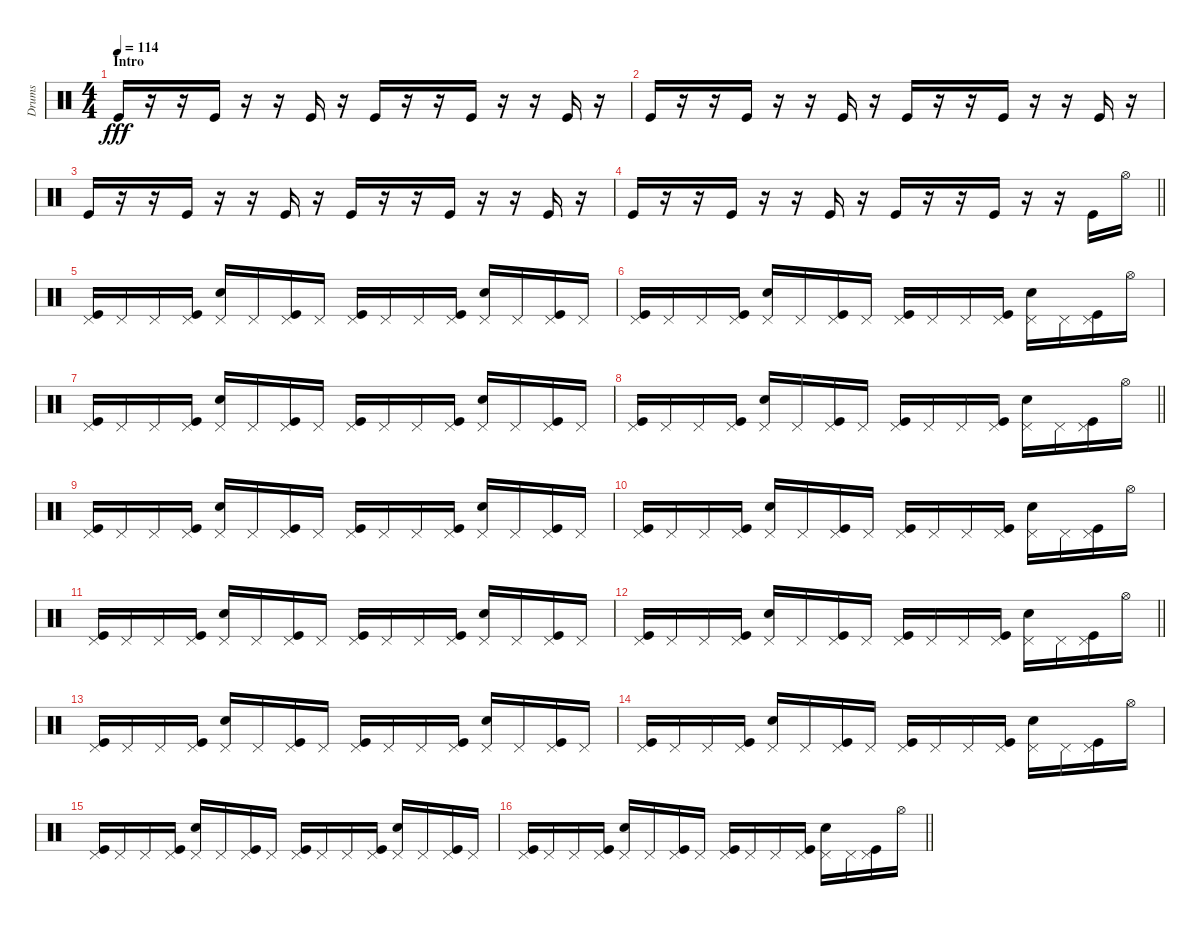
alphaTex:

\track ("Drums" "Drums") {instrument percussion}
\staff {score}
\articulation defaults
\ts (4 4)
\section ("" "Intro")
\tempo 114
\clef neutral
\ks c "Kick (hit)".16{dy fff}
r.16 r.16 "Kick (hit)".16 r.16 r.16 "Kick (hit)".16 r.16 "Kick (hit)".16 r.16 r.16 "Kick (hit)".16 r.16 r.16 "Kick (hit)".16 r.16 |
"Kick (hit)".16 r.16 r.16 "Kick (hit)".16 r.16 r.16 "Kick (hit)".16 r.16 "Kick (hit)".16 r.16 r.16 "Kick (hit)".16 r.16 r.16 "Kick (hit)".16 r.16 |
"Kick (hit)".16 r.16 r.16 "Kick (hit)".16 r.16 r.16 "Kick (hit)".16 r.16 "Kick (hit)".16 r.16 r.16 "Kick (hit)".16 r.16 r.16 "Kick (hit)".16 r.16 |
\barLineRight lightlight "Kick (hit)".16
r.16 r.16 "Kick (hit)".16 r.16 r.16 "Kick (hit)".16 r.16 "Kick (hit)".16 r.16 r.16 "Kick (hit)".16 r.16 r.16 "Kick (hit)".16 "Hi-Hat (open)".16 |
("Pedal Hi-Hat (hit)" "Kick (hit)").16 "Pedal Hi-Hat (hit)".16 "Pedal Hi-Hat (hit)".16 ("Pedal Hi-Hat (hit)" "Kick (hit)").16 ("Pedal Hi-Hat (hit)" "Snare (hit) 2").16 "Pedal Hi-Hat (hit)".16 ("Pedal Hi-Hat (hit)" "Kick (hit)").16 "Pedal Hi-Hat (hit)".16 ("Pedal Hi-Hat (hit)" "Kick (hit)").16 "Pedal Hi-Hat (hit)".16 "Pedal Hi-Hat (hit)".16 ("Pedal Hi-Hat (hit)" "Kick (hit)").16 ("Pedal Hi-Hat (hit)" "Snare (hit) 2").16 "Pedal Hi-Hat (hit)".16 ("Pedal Hi-Hat (hit)" "Kick (hit)").16 "Pedal Hi-Hat (hit)".16 |
("Pedal Hi-Hat (hit)" "Kick (hit)").16 "Pedal Hi-Hat (hit)".16 "Pedal Hi-Hat (hit)".16 ("Pedal Hi-Hat (hit)" "Kick (hit)").16 ("Pedal Hi-Hat (hit)" "Snare (hit) 2").16 "Pedal Hi-Hat (hit)".16 ("Pedal Hi-Hat (hit)" "Kick (hit)").16 "Pedal Hi-Hat (hit)".16 ("Pedal Hi-Hat (hit)" "Kick (hit)").16 "Pedal Hi-Hat (hit)".16 "Pedal Hi-Hat (hit)".16 ("Pedal Hi-Hat (hit)" "Kick (hit)").16 ("Pedal Hi-Hat (hit)" "Snare (hit) 2").16 "Pedal Hi-Hat (hit)".16 ("Pedal Hi-Hat (hit)" "Kick (hit)").16 "Hi-Hat (open)".16 |
("Pedal Hi-Hat (hit)" "Kick (hit)").16 "Pedal Hi-Hat (hit)".16 "Pedal Hi-Hat (hit)".16 ("Pedal Hi-Hat (hit)" "Kick (hit)").16 ("Pedal Hi-Hat (hit)" "Snare (hit) 2").16 "Pedal Hi-Hat (hit)".16 ("Pedal Hi-Hat (hit)" "Kick (hit)").16 "Pedal Hi-Hat (hit)".16 ("Pedal Hi-Hat (hit)" "Kick (hit)").16 "Pedal Hi-Hat (hit)".16 "Pedal Hi-Hat (hit)".16 ("Pedal Hi-Hat (hit)" "Kick (hit)").16 ("Pedal Hi-Hat (hit)" "Snare (hit) 2").16 "Pedal Hi-Hat (hit)".16 ("Pedal Hi-Hat (hit)" "Kick (hit)").16 "Pedal Hi-Hat (hit)".16 |
\barLineRight lightlight
("Pedal Hi-Hat (hit)" "Kick (hit)").16 "Pedal Hi-Hat (hit)".16 "Pedal Hi-Hat (hit)".16 ("Pedal Hi-Hat (hit)" "Kick (hit)").16 ("Pedal Hi-Hat (hit)" "Snare (hit) 2").16 "Pedal Hi-Hat (hit)".16 ("Pedal Hi-Hat (hit)" "Kick (hit)").16 "Pedal Hi-Hat (hit)".16 ("Pedal Hi-Hat (hit)" "Kick (hit)").16 "Pedal Hi-Hat (hit)".16 "Pedal Hi-Hat (hit)".16 ("Pedal Hi-Hat (hit)" "Kick (hit)").16 ("Pedal Hi-Hat (hit)" "Snare (hit) 2").16 "Pedal Hi-Hat (hit)".16 ("Pedal Hi-Hat (hit)" "Kick (hit)").16 "Hi-Hat (open)".16 |
("Pedal Hi-Hat (hit)" "Kick (hit)").16 "Pedal Hi-Hat (hit)".16 "Pedal Hi-Hat (hit)".16 ("Pedal Hi-Hat (hit)" "Kick (hit)").16 ("Pedal Hi-Hat (hit)" "Snare (hit) 2").16 "Pedal Hi-Hat (hit)".16 ("Pedal Hi-Hat (hit)" "Kick (hit)").16 "Pedal Hi-Hat (hit)".16 ("Pedal Hi-Hat (hit)" "Kick (hit)").16 "Pedal Hi-Hat (hit)".16 "Pedal Hi-Hat (hit)".16 ("Pedal Hi-Hat (hit)" "Kick (hit)").16 ("Pedal Hi-Hat (hit)" "Snare (hit) 2").16 "Pedal Hi-Hat (hit)".16 ("Pedal Hi-Hat (hit)" "Kick (hit)").16 "Pedal Hi-Hat (hit)".16 |
("Pedal Hi-Hat (hit)" "Kick (hit)").16 "Pedal Hi-Hat (hit)".16 "Pedal Hi-Hat (hit)".16 ("Pedal Hi-Hat (hit)" "Kick (hit)").16 ("Pedal Hi-Hat (hit)" "Snare (hit) 2").16 "Pedal Hi-Hat (hit)".16 ("Pedal Hi-Hat (hit)" "Kick (hit)").16 "Pedal Hi-Hat (hit)".16 ("Pedal Hi-Hat (hit)" "Kick (hit)").16 "Pedal Hi-Hat (hit)".16 "Pedal Hi-Hat (hit)".16 ("Pedal Hi-Hat (hit)" "Kick (hit)").16 ("Pedal Hi-Hat (hit)" "Snare (hit) 2").16 "Pedal Hi-Hat (hit)".16 ("Pedal Hi-Hat (hit)" "Kick (hit)").16 "Hi-Hat (open)".16 |
("Pedal Hi-Hat (hit)" "Kick (hit)").16 "Pedal Hi-Hat (hit)".16 "Pedal Hi-Hat (hit)".16 ("Pedal Hi-Hat (hit)" "Kick (hit)").16 ("Pedal Hi-Hat (hit)" "Snare (hit) 2").16 "Pedal Hi-Hat (hit)".16 ("Pedal Hi-Hat (hit)" "Kick (hit)").16 "Pedal Hi-Hat (hit)".16 ("Pedal Hi-Hat (hit)" "Kick (hit)").16 "Pedal Hi-Hat (hit)".16 "Pedal Hi-Hat (hit)".16 ("Pedal Hi-Hat (hit)" "Kick (hit)").16 ("Pedal Hi-Hat (hit)" "Snare (hit) 2").16 "Pedal Hi-Hat (hit)".16 ("Pedal Hi-Hat (hit)" "Kick (hit)").16 "Pedal Hi-Hat (hit)".16 |
\barLineRight lightlight
("Pedal Hi-Hat (hit)" "Kick (hit)").16 "Pedal Hi-Hat (hit)".16 "Pedal Hi-Hat (hit)".16 ("Pedal Hi-Hat (hit)" "Kick (hit)").16 ("Pedal Hi-Hat (hit)" "Snare (hit) 2").16 "Pedal Hi-Hat (hit)".16 ("Pedal Hi-Hat (hit)" "Kick (hit)").16 "Pedal Hi-Hat (hit)".16 ("Pedal Hi-Hat (hit)" "Kick (hit)").16 "Pedal Hi-Hat (hit)".16 "Pedal Hi-Hat (hit)".16 ("Pedal Hi-Hat (hit)" "Kick (hit)").16 ("Pedal Hi-Hat (hit)" "Snare (hit) 2").16 "Pedal Hi-Hat (hit)".16 ("Pedal Hi-Hat (hit)" "Kick (hit)").16 "Hi-Hat (open)".16 |
("Pedal Hi-Hat (hit)" "Kick (hit)").16 "Pedal Hi-Hat (hit)".16 "Pedal Hi-Hat (hit)".16 ("Pedal Hi-Hat (hit)" "Kick (hit)").16 ("Pedal Hi-Hat (hit)" "Snare (hit) 2").16 "Pedal Hi-Hat (hit)".16 ("Pedal Hi-Hat (hit)" "Kick (hit)").16 "Pedal Hi-Hat (hit)".16 ("Pedal Hi-Hat (hit)" "Kick (hit)").16 "Pedal Hi-Hat (hit)".16 "Pedal Hi-Hat (hit)".16 ("Pedal Hi-Hat (hit)" "Kick (hit)").16 ("Pedal Hi-Hat (hit)" "Snare (hit) 2").16 "Pedal Hi-Hat (hit)".16 ("Pedal Hi-Hat (hit)" "Kick (hit)").16 "Pedal Hi-Hat (hit)".16 |
("Pedal Hi-Hat (hit)" "Kick (hit)").16 "Pedal Hi-Hat (hit)".16 "Pedal Hi-Hat (hit)".16 ("Pedal Hi-Hat (hit)" "Kick (hit)").16 ("Pedal Hi-Hat (hit)" "Snare (hit) 2").16 "Pedal Hi-Hat (hit)".16 ("Pedal Hi-Hat (hit)" "Kick (hit)").16 "Pedal Hi-Hat (hit)".16 ("Pedal Hi-Hat (hit)" "Kick (hit)").16 "Pedal Hi-Hat (hit)".16 "Pedal Hi-Hat (hit)".16 ("Pedal Hi-Hat (hit)" "Kick (hit)").16 ("Pedal Hi-Hat (hit)" "Snare (hit) 2").16 "Pedal Hi-Hat (hit)".16 ("Pedal Hi-Hat (hit)" "Kick (hit)").16 "Hi-Hat (open)".16 |
("Pedal Hi-Hat (hit)" "Kick (hit)").16 "Pedal Hi-Hat (hit)".16 "Pedal Hi-Hat (hit)".16 ("Pedal Hi-Hat (hit)" "Kick (hit)").16 ("Pedal Hi-Hat (hit)" "Snare (hit) 2").16 "Pedal Hi-Hat (hit)".16 ("Pedal Hi-Hat (hit)" "Kick (hit)").16 "Pedal Hi-Hat (hit)".16 ("Pedal Hi-Hat (hit)" "Kick (hit)").16 "Pedal Hi-Hat (hit)".16 "Pedal Hi-Hat (hit)".16 ("Pedal Hi-Hat (hit)" "Kick (hit)").16 ("Pedal Hi-Hat (hit)" "Snare (hit) 2").16 "Pedal Hi-Hat (hit)".16 ("Pedal Hi-Hat (hit)" "Kick (hit)").16 "Pedal Hi-Hat (hit)".16 |
\barLineRight lightlight
("Pedal Hi-Hat (hit)" "Kick (hit)").16 "Pedal Hi-Hat (hit)".16 "Pedal Hi-Hat (hit)".16 ("Pedal Hi-Hat (hit)" "Kick (hit)").16 ("Pedal Hi-Hat (hit)" "Snare (hit) 2").16 "Pedal Hi-Hat (hit)".16 ("Pedal Hi-Hat (hit)" "Kick (hit)").16 "Pedal Hi-Hat (hit)".16 ("Pedal Hi-Hat (hit)" "Kick (hit)").16 "Pedal Hi-Hat (hit)".16 "Pedal Hi-Hat (hit)".16 ("Pedal Hi-Hat (hit)" "Kick (hit)").16 ("Pedal Hi-Hat (hit)" "Snare (hit) 2").16 "Pedal Hi-Hat (hit)".16 ("Pedal Hi-Hat (hit)" "Kick (hit)").16 "Hi-Hat (open)".16
